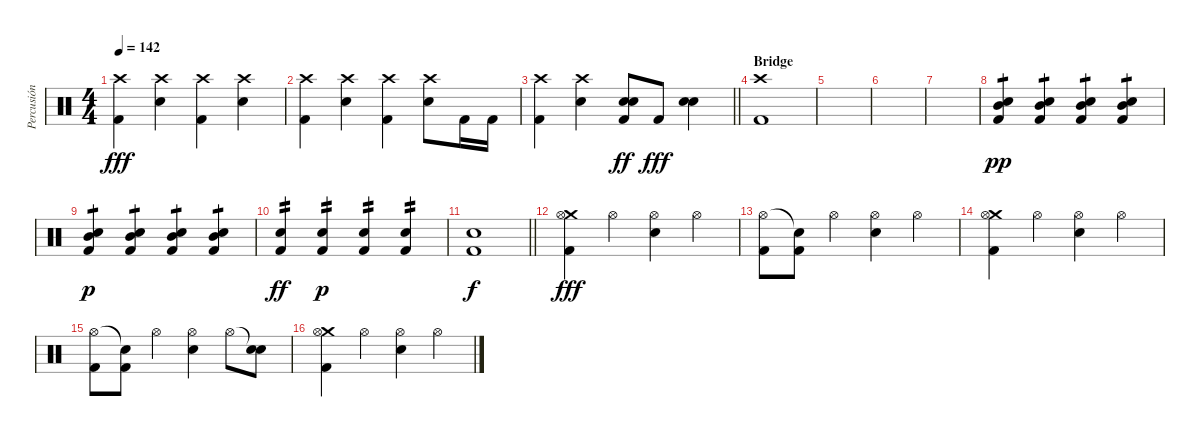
\track ("Percusión" "Percusión") {instrument percussion}
\staff {score}
\articulation defaults
\ts (4 4)
\tempo 142
\clef neutral
\ks c
("Crash high (hit)" "Kick (hit) 2").4{dy fff} ("Crash high (hit)" "Electric Snare (hit)").4 ("Crash high (hit)" "Kick (hit) 2").4 ("Crash high (hit)" "Electric Snare (hit)").4 |
("Crash high (hit)" "Kick (hit) 2").4 ("Crash high (hit)" "Electric Snare (hit)").4 ("Crash high (hit)" "Kick (hit) 2").4 ("Crash high (hit)" "Electric Snare (hit)").8 "Kick (hit) 2".16 "Kick (hit) 2".16 |
\barLineRight lightlight
("Crash high (hit)" "Kick (hit) 2").4 ("Crash high (hit)" "Electric Snare (hit)").4 ("Snare (hit) 2" "Electric Snare (hit)" "Kick (hit) 2").8{dy ff} "Kick (hit) 2".8{dy fff} ("Snare (hit) 2" "Electric Snare (hit)").4 |
\section ("" "Bridge")
("Crash high (hit)" "Kick (hit) 2").1 |
|
|
|
("Electric Snare (hit)" "Mid Tom (hit)" "Kick (hit) 2").4{tp 1 dy pp} ("Electric Snare (hit)" "Mid Tom (hit)" "Kick (hit) 2").4{tp 1} ("Electric Snare (hit)" "Mid Tom (hit)" "Kick (hit) 2").4{tp 1} ("Electric Snare (hit)" "Mid Tom (hit)" "Kick (hit) 2").4{tp 1} |
("Electric Snare (hit)" "Mid Tom (hit)" "Kick (hit) 2").4{tp 1 dy p} ("Electric Snare (hit)" "Mid Tom (hit)" "Kick (hit) 2").4{tp 1} ("Electric Snare (hit)" "Mid Tom (hit)" "Kick (hit) 2").4{tp 1} ("Electric Snare (hit)" "Mid Tom (hit)" "Kick (hit) 2").4{tp 1} |
("Electric Snare (hit)" "Kick (hit) 2").4{tp 2 dy ff} ("Electric Snare (hit)" "Kick (hit) 2").4{tp 2 dy p} ("Electric Snare (hit)" "Kick (hit) 2").4{tp 2} ("Electric Snare (hit)" "Kick (hit) 2").4{tp 2} |
\barLineRight lightlight
("Electric Snare (hit)" "Kick (hit) 2").1{dy f} |
("Crash medium (hit)" "Hi-Hat (open)" "Kick (hit) 2").4{dy fff} "Hi-Hat (open)".4 ("Hi-Hat (open)" "Electric Snare (hit)").4 "Hi-Hat (open)".4 |
("Hi-Hat (open)" "Kick (hit) 2").8 ("Snare (hit)"{t} "Kick (hit) 2").8 "Hi-Hat (open)".4 ("Hi-Hat (open)" "Electric Snare (hit)").4 "Hi-Hat (open)".4 |
("Crash medium (hit)" "Hi-Hat (open)" "Kick (hit) 2").4 "Hi-Hat (open)".4 ("Hi-Hat (open)" "Electric Snare (hit)").4 "Hi-Hat (open)".4 |
("Hi-Hat (open)" "Kick (hit) 2").8 ("Snare (hit)"{t} "Kick (hit) 2").8 "Hi-Hat (open)".4 ("Hi-Hat (open)" "Electric Snare (hit)").4 "Hi-Hat (open)".8 ("Snare (hit)"{t} "Electric Snare (hit)").8 |
("Crash medium (hit)" "Hi-Hat (open)" "Kick (hit) 2").4 "Hi-Hat (open)".4 ("Hi-Hat (open)" "Electric Snare (hit)").4 "Hi-Hat (open)".4
